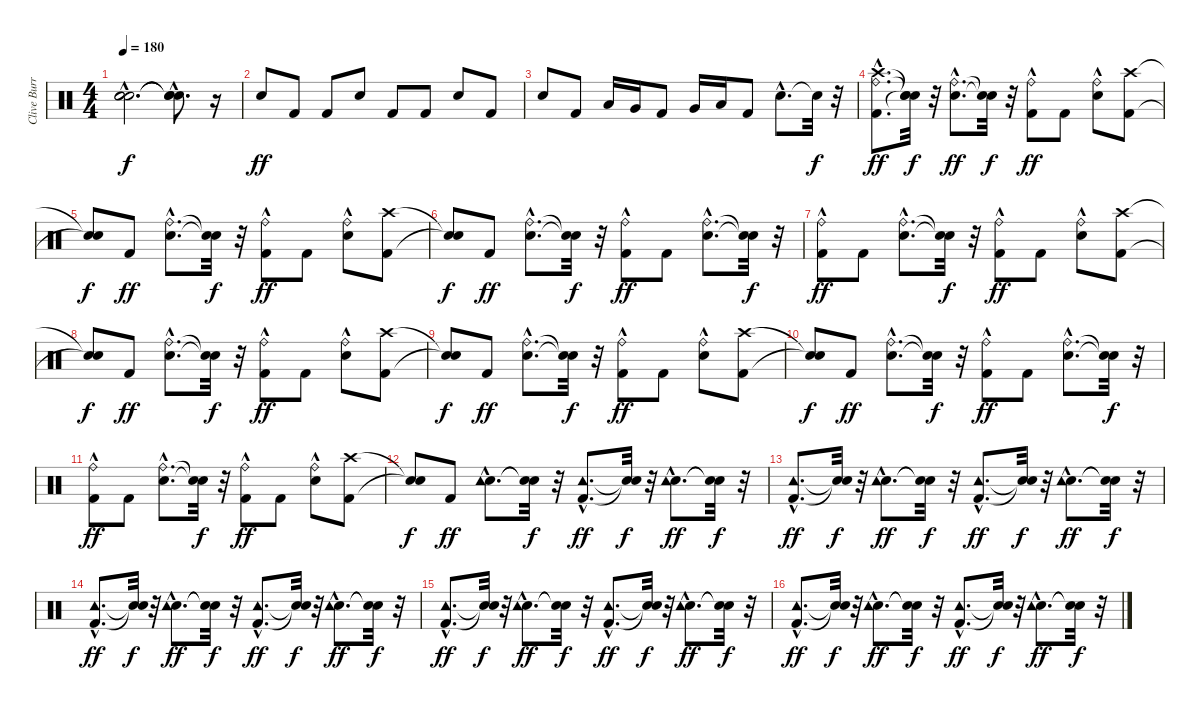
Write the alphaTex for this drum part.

\track ("Clive Burr" "Clive Burr") {instrument percussion}
\staff {score}
\articulation defaults
\ts (4 4)
\tempo 180
\clef neutral
\ks c
("Snare (hit)"{hac t} "Snare (hit)"{hac t} "Snare (hit)"{hac t}).2{d dy f} ("Snare (hit)"{hac t} "Snare (hit)"{hac t} "Snare (hit)"{hac t}).8{d} r.16 |
"Snare (hit) 2".8{dy ff} "Kick (hit) 2".8 "Kick (hit) 2".8 "Snare (hit) 2".8 "Kick (hit) 2".8 "Kick (hit) 2".8 "Snare (hit) 2".8 "Kick (hit) 2".8 |
"Snare (hit) 2".8 "Kick (hit) 2".8 "Low Tom (hit)".16 "Very Low Tom (hit)".16 "Kick (hit) 2".8 "Very Low Tom (hit)".16 "Low Floor Tom (hit)".16 "Kick (hit) 2".8 "Snare (hit) 2"{hac}.8{d} "Snare (hit)"{t}.32{dy f} r.32 |
("Kick (hit) 2"{hac} "Crash high (hit)"{hac} "Ride (bell)"{hac}).8{d dy ff} ("Snare (hit)"{t} "Snare (hit)"{t} "Snare (hit)"{t}).32{dy f} r.32 ("Snare (hit) 2"{hac} "Ride (bell)"{hac}).8{d dy ff} ("Snare (hit)"{t} "Snare (hit)"{t}).32{dy f} r.32 ("Kick (hit) 2" "Ride (bell)"{hac}).8{dy ff} "Kick (hit) 2".8 ("Snare (hit) 2" "Ride (bell)"{hac}).8 ("Kick (hit) 2" "Crash high (hit)").8 |
("Snare (hit)"{t} "Snare (hit)"{t}).8{dy f} "Kick (hit) 2".8{dy ff} ("Snare (hit) 2"{hac} "Ride (bell)"{hac}).8{d} ("Snare (hit)"{t} "Snare (hit)"{t}).32{dy f} r.32 ("Kick (hit) 2" "Ride (bell)"{hac}).8{dy ff} "Kick (hit) 2".8 ("Snare (hit) 2" "Ride (bell)"{hac}).8 ("Kick (hit) 2" "Crash high (hit)").8 |
("Snare (hit)"{t} "Snare (hit)"{t}).8{dy f} "Kick (hit) 2".8{dy ff} ("Snare (hit) 2"{hac} "Ride (bell)"{hac}).8{d} ("Snare (hit)"{t} "Snare (hit)"{t}).32{dy f} r.32 ("Kick (hit) 2" "Ride (bell)"{hac}).8{dy ff} "Kick (hit) 2".8 ("Snare (hit) 2"{hac} "Ride (bell)"{hac}).8{d} ("Snare (hit)"{t} "Snare (hit)"{t}).32{dy f} r.32 |
("Kick (hit) 2" "Ride (bell)"{hac}).8{dy ff} "Kick (hit) 2".8 ("Snare (hit) 2"{hac} "Ride (bell)"{hac}).8{d} ("Snare (hit)"{t} "Snare (hit)"{t}).32{dy f} r.32 ("Kick (hit) 2" "Ride (bell)"{hac}).8{dy ff} "Kick (hit) 2".8 ("Snare (hit) 2" "Ride (bell)"{hac}).8 ("Kick (hit) 2" "Crash high (hit)").8 |
("Snare (hit)"{t} "Snare (hit)"{t}).8{dy f} "Kick (hit) 2".8{dy ff} ("Snare (hit) 2"{hac} "Ride (bell)"{hac}).8{d} ("Snare (hit)"{t} "Snare (hit)"{t}).32{dy f} r.32 ("Kick (hit) 2" "Ride (bell)"{hac}).8{dy ff} "Kick (hit) 2".8 ("Snare (hit) 2" "Ride (bell)"{hac}).8 ("Kick (hit) 2" "Crash high (hit)").8 |
("Snare (hit)"{t} "Snare (hit)"{t}).8{dy f} "Kick (hit) 2".8{dy ff} ("Snare (hit) 2"{hac} "Ride (bell)"{hac}).8{d} ("Snare (hit)"{t} "Snare (hit)"{t}).32{dy f} r.32 ("Kick (hit) 2" "Ride (bell)"{hac}).8{dy ff} "Kick (hit) 2".8 ("Snare (hit) 2" "Ride (bell)"{hac}).8 ("Kick (hit) 2" "Crash high (hit)").8 |
("Snare (hit)"{t} "Snare (hit)"{t}).8{dy f} "Kick (hit) 2".8{dy ff} ("Snare (hit) 2"{hac} "Ride (bell)"{hac}).8{d} ("Snare (hit)"{t} "Snare (hit)"{t}).32{dy f} r.32 ("Kick (hit) 2" "Ride (bell)"{hac}).8{dy ff} "Kick (hit) 2".8 ("Snare (hit) 2"{hac} "Ride (bell)"{hac}).8{d} ("Snare (hit)"{t} "Snare (hit)"{t}).32{dy f} r.32 |
("Kick (hit) 2" "Ride (bell)"{hac}).8{dy ff} "Kick (hit) 2".8 ("Snare (hit) 2"{hac} "Ride (bell)"{hac}).8{d} ("Snare (hit)"{t} "Snare (hit)"{t}).32{dy f} r.32 ("Kick (hit) 2" "Ride (bell)"{hac}).8{dy ff} "Kick (hit) 2".8 ("Snare (hit) 2" "Ride (bell)"{hac}).8 ("Kick (hit) 2" "Crash high (hit)").8 |
("Snare (hit)"{t} "Snare (hit)"{t}).8{dy f} "Kick (hit) 2".8{dy ff} ("Snare (hit) 2"{hac} "Tambourine (hit)"{hac}).8{d} ("Snare (hit)"{t} "Snare (hit)"{t}).32{dy f} r.32 ("Kick (hit) 2"{hac} "Tambourine (hit)"{hac}).8{d dy ff} ("Snare (hit)"{t} "Snare (hit)"{t}).32{dy f} r.32 ("Snare (hit) 2"{hac} "Tambourine (hit)"{hac}).8{d dy ff} ("Snare (hit)"{t} "Snare (hit)"{t}).32{dy f} r.32 |
("Kick (hit) 2"{hac} "Tambourine (hit)"{hac}).8{d dy ff} ("Snare (hit)"{t} "Snare (hit)"{t}).32{dy f} r.32 ("Snare (hit) 2"{hac} "Tambourine (hit)"{hac}).8{d dy ff} ("Snare (hit)"{t} "Snare (hit)"{t}).32{dy f} r.32 ("Kick (hit) 2"{hac} "Tambourine (hit)"{hac}).8{d dy ff} ("Snare (hit)"{t} "Snare (hit)"{t}).32{dy f} r.32 ("Snare (hit) 2"{hac} "Tambourine (hit)"{hac}).8{d dy ff} ("Snare (hit)"{t} "Snare (hit)"{t}).32{dy f} r.32 |
("Kick (hit) 2"{hac} "Tambourine (hit)"{hac}).8{d dy ff} ("Snare (hit)"{t} "Snare (hit)"{t}).32{dy f} r.32 ("Snare (hit) 2"{hac} "Tambourine (hit)"{hac}).8{d dy ff} ("Snare (hit)"{t} "Snare (hit)"{t}).32{dy f} r.32 ("Kick (hit) 2"{hac} "Tambourine (hit)"{hac}).8{d dy ff} ("Snare (hit)"{t} "Snare (hit)"{t}).32{dy f} r.32 ("Snare (hit) 2"{hac} "Tambourine (hit)"{hac}).8{d dy ff} ("Snare (hit)"{t} "Snare (hit)"{t}).32{dy f} r.32 |
("Kick (hit) 2"{hac} "Tambourine (hit)"{hac}).8{d dy ff} ("Snare (hit)"{t} "Snare (hit)"{t}).32{dy f} r.32 ("Snare (hit) 2"{hac} "Tambourine (hit)"{hac}).8{d dy ff} ("Snare (hit)"{t} "Snare (hit)"{t}).32{dy f} r.32 ("Kick (hit) 2"{hac} "Tambourine (hit)"{hac}).8{d dy ff} ("Snare (hit)"{t} "Snare (hit)"{t}).32{dy f} r.32 ("Snare (hit) 2"{hac} "Tambourine (hit)"{hac}).8{d dy ff} ("Snare (hit)"{t} "Snare (hit)"{t}).32{dy f} r.32 |
("Kick (hit) 2"{hac} "Tambourine (hit)"{hac}).8{d dy ff} ("Snare (hit)"{t} "Snare (hit)"{t}).32{dy f} r.32 ("Snare (hit) 2"{hac} "Tambourine (hit)"{hac}).8{d dy ff} ("Snare (hit)"{t} "Snare (hit)"{t}).32{dy f} r.32 ("Kick (hit) 2"{hac} "Tambourine (hit)"{hac}).8{d dy ff} ("Snare (hit)"{t} "Snare (hit)"{t}).32{dy f} r.32 ("Snare (hit) 2"{hac} "Tambourine (hit)"{hac}).8{d dy ff} ("Snare (hit)"{t} "Snare (hit)"{t}).32{dy f} r.32
